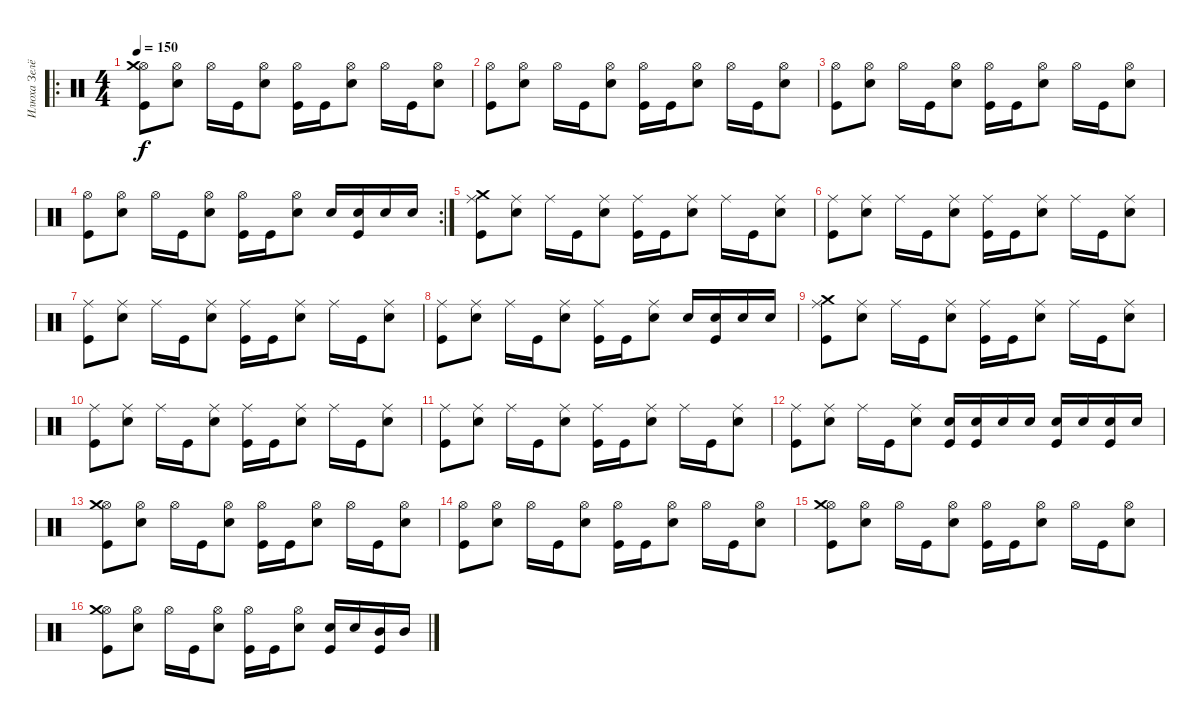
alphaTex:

\track ("Илюха Зелёный (БАРАБАНЫ)" "Илюха Зелё") {instrument percussion}
\staff {score}
\articulation defaults
\ro
\ts (4 4)
\tempo 150
\clef neutral
\ks c
("Hi-Hat (open)" "Crash medium (hit)" "Kick (hit)").8{dy f} ("Hi-Hat (open)" "Electric Snare (hit)").8 "Hi-Hat (open)".16 "Kick (hit)".16 ("Hi-Hat (open)" "Electric Snare (hit)").8 ("Hi-Hat (open)" "Kick (hit)").16 "Kick (hit)".16 ("Hi-Hat (open)" "Electric Snare (hit)").8 "Hi-Hat (open)".16 "Kick (hit)".16 ("Hi-Hat (open)" "Electric Snare (hit)").8 |
("Hi-Hat (open)" "Kick (hit)").8 ("Hi-Hat (open)" "Electric Snare (hit)").8 "Hi-Hat (open)".16 "Kick (hit)".16 ("Hi-Hat (open)" "Electric Snare (hit)").8 ("Hi-Hat (open)" "Kick (hit)").16 "Kick (hit)".16 ("Hi-Hat (open)" "Electric Snare (hit)").8 "Hi-Hat (open)".16 "Kick (hit)".16 ("Hi-Hat (open)" "Electric Snare (hit)").8 |
("Hi-Hat (open)" "Kick (hit)").8 ("Hi-Hat (open)" "Electric Snare (hit)").8 "Hi-Hat (open)".16 "Kick (hit)".16 ("Hi-Hat (open)" "Electric Snare (hit)").8 ("Hi-Hat (open)" "Kick (hit)").16 "Kick (hit)".16 ("Hi-Hat (open)" "Electric Snare (hit)").8 "Hi-Hat (open)".16 "Kick (hit)".16 ("Hi-Hat (open)" "Electric Snare (hit)").8 |
\rc 2
("Hi-Hat (open)" "Kick (hit)").8 ("Hi-Hat (open)" "Electric Snare (hit)").8 "Hi-Hat (open)".16 "Kick (hit)".16 ("Hi-Hat (open)" "Electric Snare (hit)").8 ("Hi-Hat (open)" "Kick (hit)").16 "Kick (hit)".16 ("Hi-Hat (open)" "Electric Snare (hit)").8 "Electric Snare (hit)".16 ("Electric Snare (hit)" "Kick (hit)").16 "Electric Snare (hit)".16 "Electric Snare (hit)".16 |
("Ride (middle)" "Crash medium (hit)" "Kick (hit)").8 ("Ride (middle)" "Electric Snare (hit)").8 "Ride (middle)".16 "Kick (hit)".16 ("Ride (middle)" "Electric Snare (hit)").8 ("Ride (middle)" "Kick (hit)").16 "Kick (hit)".16 ("Ride (middle)" "Electric Snare (hit)").8 "Ride (middle)".16 "Kick (hit)".16 ("Ride (middle)" "Electric Snare (hit)").8 |
("Ride (middle)" "Kick (hit)").8 ("Ride (middle)" "Electric Snare (hit)").8 "Ride (middle)".16 "Kick (hit)".16 ("Ride (middle)" "Electric Snare (hit)").8 ("Ride (middle)" "Kick (hit)").16 "Kick (hit)".16 ("Ride (middle)" "Electric Snare (hit)").8 "Ride (middle)".16 "Kick (hit)".16 ("Ride (middle)" "Electric Snare (hit)").8 |
("Ride (middle)" "Kick (hit)").8 ("Ride (middle)" "Electric Snare (hit)").8 "Ride (middle)".16 "Kick (hit)".16 ("Ride (middle)" "Electric Snare (hit)").8 ("Ride (middle)" "Kick (hit)").16 "Kick (hit)".16 ("Ride (middle)" "Electric Snare (hit)").8 "Ride (middle)".16 "Kick (hit)".16 ("Ride (middle)" "Electric Snare (hit)").8 |
("Ride (middle)" "Kick (hit)").8 ("Ride (middle)" "Electric Snare (hit)").8 "Ride (middle)".16 "Kick (hit)".16 ("Ride (middle)" "Electric Snare (hit)").8 ("Ride (middle)" "Kick (hit)").16 "Kick (hit)".16 ("Ride (middle)" "Electric Snare (hit)").8 "Electric Snare (hit)".16 ("Electric Snare (hit)" "Kick (hit)").16 "Electric Snare (hit)".16 "Electric Snare (hit)".16 |
("Ride (middle)" "Crash medium (hit)" "Kick (hit)").8 ("Ride (middle)" "Electric Snare (hit)").8 "Ride (middle)".16 "Kick (hit)".16 ("Ride (middle)" "Electric Snare (hit)").8 ("Ride (middle)" "Kick (hit)").16 "Kick (hit)".16 ("Ride (middle)" "Electric Snare (hit)").8 "Ride (middle)".16 "Kick (hit)".16 ("Ride (middle)" "Electric Snare (hit)").8 |
("Ride (middle)" "Kick (hit)").8 ("Ride (middle)" "Electric Snare (hit)").8 "Ride (middle)".16 "Kick (hit)".16 ("Ride (middle)" "Electric Snare (hit)").8 ("Ride (middle)" "Kick (hit)").16 "Kick (hit)".16 ("Ride (middle)" "Electric Snare (hit)").8 "Ride (middle)".16 "Kick (hit)".16 ("Ride (middle)" "Electric Snare (hit)").8 |
("Ride (middle)" "Kick (hit)").8 ("Ride (middle)" "Electric Snare (hit)").8 "Ride (middle)".16 "Kick (hit)".16 ("Ride (middle)" "Electric Snare (hit)").8 ("Ride (middle)" "Kick (hit)").16 "Kick (hit)".16 ("Ride (middle)" "Electric Snare (hit)").8 "Ride (middle)".16 "Kick (hit)".16 ("Ride (middle)" "Electric Snare (hit)").8 |
("Ride (middle)" "Kick (hit)").8 ("Ride (middle)" "Electric Snare (hit)").8 "Ride (middle)".16 "Kick (hit)".16 ("Ride (middle)" "Electric Snare (hit)").8 ("Electric Snare (hit)" "Kick (hit)").16 ("Electric Snare (hit)" "Kick (hit)").16 "Electric Snare (hit)".16 "Electric Snare (hit)".16 ("Electric Snare (hit)" "Kick (hit)").16 "Electric Snare (hit)".16 ("Electric Snare (hit)" "Kick (hit)").16 "Electric Snare (hit)".16 |
("Hi-Hat (open)" "Crash medium (hit)" "Kick (hit)").8 ("Hi-Hat (open)" "Electric Snare (hit)").8 "Hi-Hat (open)".16 "Kick (hit)".16 ("Hi-Hat (open)" "Electric Snare (hit)").8 ("Hi-Hat (open)" "Kick (hit)").16 "Kick (hit)".16 ("Hi-Hat (open)" "Electric Snare (hit)").8 "Hi-Hat (open)".16 "Kick (hit)".16 ("Hi-Hat (open)" "Electric Snare (hit)").8 |
("Hi-Hat (open)" "Kick (hit)").8 ("Hi-Hat (open)" "Electric Snare (hit)").8 "Hi-Hat (open)".16 "Kick (hit)".16 ("Hi-Hat (open)" "Electric Snare (hit)").8 ("Hi-Hat (open)" "Kick (hit)").16 "Kick (hit)".16 ("Hi-Hat (open)" "Electric Snare (hit)").8 "Hi-Hat (open)".16 "Kick (hit)".16 ("Hi-Hat (open)" "Electric Snare (hit)").8 |
("Hi-Hat (open)" "Crash medium (hit)" "Kick (hit)").8 ("Hi-Hat (open)" "Electric Snare (hit)").8 "Hi-Hat (open)".16 "Kick (hit)".16 ("Hi-Hat (open)" "Electric Snare (hit)").8 ("Hi-Hat (open)" "Kick (hit)").16 "Kick (hit)".16 ("Hi-Hat (open)" "Electric Snare (hit)").8 "Hi-Hat (open)".16 "Kick (hit)".16 ("Hi-Hat (open)" "Electric Snare (hit)").8 |
("Hi-Hat (open)" "Crash medium (hit)" "Kick (hit)").8 ("Hi-Hat (open)" "Electric Snare (hit)").8 "Hi-Hat (open)".16 "Kick (hit)".16 ("Hi-Hat (open)" "Electric Snare (hit)").8 ("Hi-Hat (open)" "Kick (hit)").16 "Kick (hit)".16 ("Hi-Hat (open)" "Electric Snare (hit)").8 ("Electric Snare (hit)" "Kick (hit)").16 "Electric Snare (hit)".16 ("Mid Tom (hit)" "Kick (hit)").16 "Mid Tom (hit)".16
